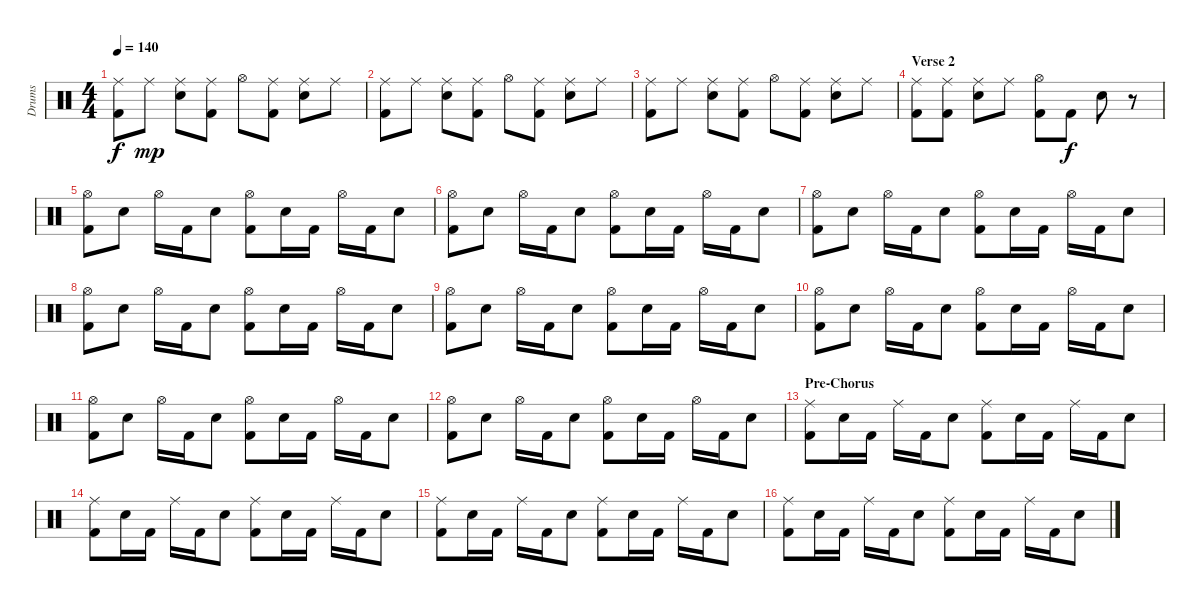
\track ("Drums" "Drums") {instrument percussion}
\staff {score}
\articulation defaults
\ts (4 4)
\tempo 140
\clef neutral
\ks c
("Ride (middle)" "Kick (hit) 2").8{dy f} "Ride (middle)".8{dy mp} ("Ride (middle)" "Electric Snare (hit)").8 ("Ride (middle)" "Kick (hit) 2").8 "Hi-Hat (open)".8 ("Ride (middle)" "Kick (hit) 2").8 ("Ride (middle)" "Electric Snare (hit)").8 "Ride (middle)".8 |
("Ride (middle)" "Kick (hit) 2").8 "Ride (middle)".8 ("Ride (middle)" "Electric Snare (hit)").8 ("Ride (middle)" "Kick (hit) 2").8 "Hi-Hat (open)".8 ("Ride (middle)" "Kick (hit) 2").8 ("Ride (middle)" "Electric Snare (hit)").8 "Ride (middle)".8 |
("Ride (middle)" "Kick (hit) 2").8 "Ride (middle)".8 ("Ride (middle)" "Electric Snare (hit)").8 ("Ride (middle)" "Kick (hit) 2").8 "Hi-Hat (open)".8 ("Ride (middle)" "Kick (hit) 2").8 ("Ride (middle)" "Electric Snare (hit)").8 "Ride (middle)".8 |
\section ("" "Verse 2")
("Ride (middle)" "Kick (hit) 2").8 ("Ride (middle)" "Kick (hit) 2").8 ("Ride (middle)" "Electric Snare (hit)").8 "Ride (middle)".8 ("Hi-Hat (open)" "Kick (hit) 2").8 "Kick (hit) 2".8{dy f} "Electric Snare (hit)".8 r.8 |
("Hi-Hat (open)" "Kick (hit) 2").8 "Electric Snare (hit)".8 "Hi-Hat (open)".16 "Kick (hit) 2".16 "Electric Snare (hit)".8 ("Hi-Hat (open)" "Kick (hit) 2").8 "Electric Snare (hit)".16 "Kick (hit) 2".16 "Hi-Hat (open)".16 "Kick (hit) 2".16 "Electric Snare (hit)".8 |
("Hi-Hat (open)" "Kick (hit) 2").8 "Electric Snare (hit)".8 "Hi-Hat (open)".16 "Kick (hit) 2".16 "Electric Snare (hit)".8 ("Hi-Hat (open)" "Kick (hit) 2").8 "Electric Snare (hit)".16 "Kick (hit) 2".16 "Hi-Hat (open)".16 "Kick (hit) 2".16 "Electric Snare (hit)".8 |
("Hi-Hat (open)" "Kick (hit) 2").8 "Electric Snare (hit)".8 "Hi-Hat (open)".16 "Kick (hit) 2".16 "Electric Snare (hit)".8 ("Hi-Hat (open)" "Kick (hit) 2").8 "Electric Snare (hit)".16 "Kick (hit) 2".16 "Hi-Hat (open)".16 "Kick (hit) 2".16 "Electric Snare (hit)".8 |
("Hi-Hat (open)" "Kick (hit) 2").8 "Electric Snare (hit)".8 "Hi-Hat (open)".16 "Kick (hit) 2".16 "Electric Snare (hit)".8 ("Hi-Hat (open)" "Kick (hit) 2").8 "Electric Snare (hit)".16 "Kick (hit) 2".16 "Hi-Hat (open)".16 "Kick (hit) 2".16 "Electric Snare (hit)".8 |
("Hi-Hat (open)" "Kick (hit) 2").8 "Electric Snare (hit)".8 "Hi-Hat (open)".16 "Kick (hit) 2".16 "Electric Snare (hit)".8 ("Hi-Hat (open)" "Kick (hit) 2").8 "Electric Snare (hit)".16 "Kick (hit) 2".16 "Hi-Hat (open)".16 "Kick (hit) 2".16 "Electric Snare (hit)".8 |
("Hi-Hat (open)" "Kick (hit) 2").8 "Electric Snare (hit)".8 "Hi-Hat (open)".16 "Kick (hit) 2".16 "Electric Snare (hit)".8 ("Hi-Hat (open)" "Kick (hit) 2").8 "Electric Snare (hit)".16 "Kick (hit) 2".16 "Hi-Hat (open)".16 "Kick (hit) 2".16 "Electric Snare (hit)".8 |
("Hi-Hat (open)" "Kick (hit) 2").8 "Electric Snare (hit)".8 "Hi-Hat (open)".16 "Kick (hit) 2".16 "Electric Snare (hit)".8 ("Hi-Hat (open)" "Kick (hit) 2").8 "Electric Snare (hit)".16 "Kick (hit) 2".16 "Hi-Hat (open)".16 "Kick (hit) 2".16 "Electric Snare (hit)".8 |
("Hi-Hat (open)" "Kick (hit) 2").8 "Electric Snare (hit)".8 "Hi-Hat (open)".16 "Kick (hit) 2".16 "Electric Snare (hit)".8 ("Hi-Hat (open)" "Kick (hit) 2").8 "Electric Snare (hit)".16 "Kick (hit) 2".16 "Hi-Hat (open)".16 "Kick (hit) 2".16 "Electric Snare (hit)".8 |
\section ("" "Pre-Chorus")
("Ride (middle)" "Kick (hit) 2").8 "Electric Snare (hit)".16 "Kick (hit) 2".16 "Ride (middle)".16 "Kick (hit) 2".16 "Electric Snare (hit)".8 ("Ride (middle)" "Kick (hit) 2").8 "Electric Snare (hit)".16 "Kick (hit) 2".16 "Ride (middle)".16 "Kick (hit) 2".16 "Electric Snare (hit)".8 |
("Ride (middle)" "Kick (hit) 2").8 "Electric Snare (hit)".16 "Kick (hit) 2".16 "Ride (middle)".16 "Kick (hit) 2".16 "Electric Snare (hit)".8 ("Ride (middle)" "Kick (hit) 2").8 "Electric Snare (hit)".16 "Kick (hit) 2".16 "Ride (middle)".16 "Kick (hit) 2".16 "Electric Snare (hit)".8 |
("Ride (middle)" "Kick (hit) 2").8 "Electric Snare (hit)".16 "Kick (hit) 2".16 "Ride (middle)".16 "Kick (hit) 2".16 "Electric Snare (hit)".8 ("Ride (middle)" "Kick (hit) 2").8 "Electric Snare (hit)".16 "Kick (hit) 2".16 "Ride (middle)".16 "Kick (hit) 2".16 "Electric Snare (hit)".8 |
("Ride (middle)" "Kick (hit) 2").8 "Electric Snare (hit)".16 "Kick (hit) 2".16 "Ride (middle)".16 "Kick (hit) 2".16 "Electric Snare (hit)".8 ("Ride (middle)" "Kick (hit) 2").8 "Electric Snare (hit)".16 "Kick (hit) 2".16 "Ride (middle)".16 "Kick (hit) 2".16 "Electric Snare (hit)".8
